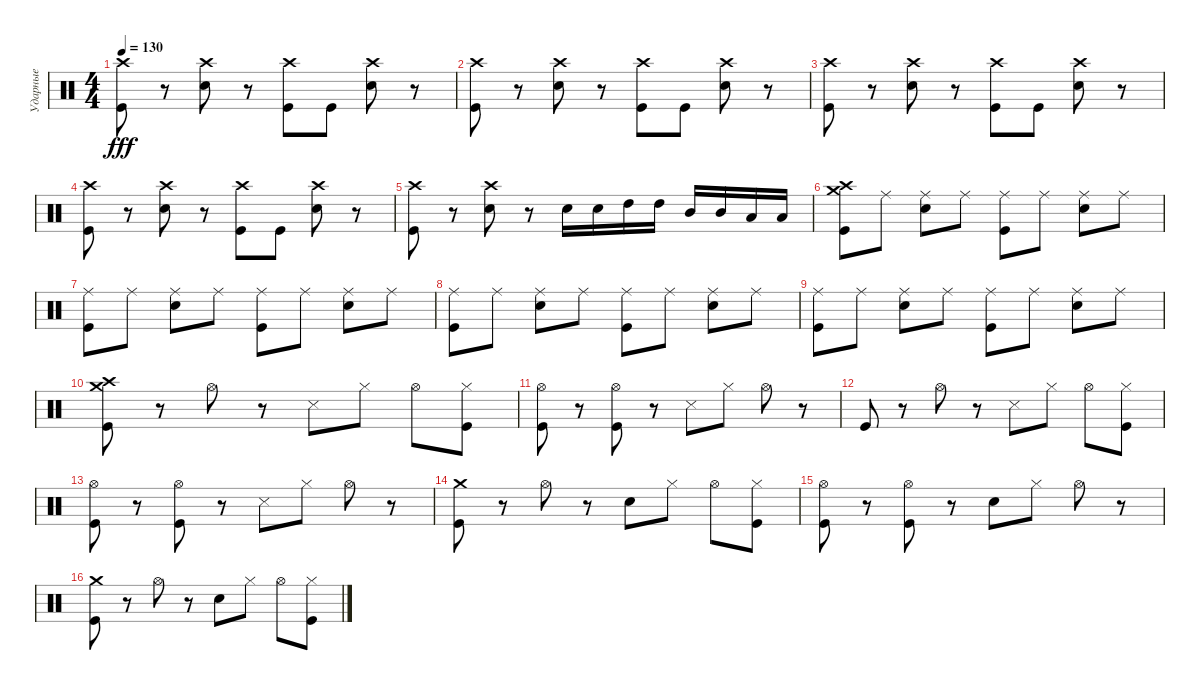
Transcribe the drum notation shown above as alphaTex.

\track ("Ударные" "Ударные") {instrument percussion}
\staff {score}
\articulation defaults
\ts (4 4)
\tempo 130
\clef neutral
\ks c
("Crash high (hit)" "Kick (hit)").8{dy fff} r.8 ("Crash high (hit)" "Electric Snare (hit)").8 r.8 ("Crash high (hit)" "Kick (hit)").8 "Kick (hit)".8 ("Crash high (hit)" "Electric Snare (hit)").8 r.8 |
("Crash high (hit)" "Kick (hit)").8 r.8 ("Crash high (hit)" "Electric Snare (hit)").8 r.8 ("Crash high (hit)" "Kick (hit)").8 "Kick (hit)".8 ("Crash high (hit)" "Electric Snare (hit)").8 r.8 |
("Crash high (hit)" "Kick (hit)").8 r.8 ("Crash high (hit)" "Electric Snare (hit)").8 r.8 ("Crash high (hit)" "Kick (hit)").8 "Kick (hit)".8 ("Crash high (hit)" "Electric Snare (hit)").8 r.8 |
("Crash high (hit)" "Kick (hit)").8 r.8 ("Crash high (hit)" "Electric Snare (hit)").8 r.8 ("Crash high (hit)" "Kick (hit)").8 "Kick (hit)".8 ("Crash high (hit)" "Electric Snare (hit)").8 r.8 |
("Crash high (hit)" "Kick (hit)").8 r.8 ("Crash high (hit)" "Electric Snare (hit)").8 r.8 "Electric Snare (hit)".16 "Electric Snare (hit)".16 "High Tom (hit)".16 "High Tom (hit)".16 "Mid Tom (hit)".16 "Mid Tom (hit)".16 "Low Tom (hit)".16 "Low Tom (hit)".16 |
("Crash medium (hit)" "Crash high (hit)" "Kick (hit)").8 "Ride (middle)".8 ("Ride (middle)" "Electric Snare (hit)").8 "Ride (middle)".8 ("Ride (middle)" "Kick (hit)").8 "Ride (middle)".8 ("Ride (middle)" "Electric Snare (hit)").8 "Ride (middle)".8 |
("Ride (middle)" "Kick (hit)").8 "Ride (middle)".8 ("Ride (middle)" "Electric Snare (hit)").8 "Ride (middle)".8 ("Ride (middle)" "Kick (hit)").8 "Ride (middle)".8 ("Ride (middle)" "Electric Snare (hit)").8 "Ride (middle)".8 |
("Ride (middle)" "Kick (hit)").8 "Ride (middle)".8 ("Ride (middle)" "Electric Snare (hit)").8 "Ride (middle)".8 ("Ride (middle)" "Kick (hit)").8 "Ride (middle)".8 ("Ride (middle)" "Electric Snare (hit)").8 "Ride (middle)".8 |
("Ride (middle)" "Kick (hit)").8 "Ride (middle)".8 ("Ride (middle)" "Electric Snare (hit)").8 "Ride (middle)".8 ("Ride (middle)" "Kick (hit)").8 "Ride (middle)".8 ("Ride (middle)" "Electric Snare (hit)").8 "Ride (middle)".8 |
("Crash medium (hit)" "Kick (hit)" "Crash high (hit)").8 r.8 "Hi-Hat (open)".8 r.8 "Snare (side stick) 3".8 "Hi-Hat (closed)".8 "Hi-Hat (open)".8 ("Kick (hit)" "Hi-Hat (closed)").8 |
("Kick (hit)" "Hi-Hat (open)").8 r.8 ("Kick (hit)" "Hi-Hat (open)").8 r.8 "Snare (side stick) 3".8 "Hi-Hat (closed)".8 "Hi-Hat (open)".8 r.8 |
"Kick (hit)".8 r.8 "Hi-Hat (open)".8 r.8 "Snare (side stick) 3".8 "Hi-Hat (closed)".8 "Hi-Hat (open)".8 ("Kick (hit)" "Hi-Hat (closed)").8 |
("Kick (hit)" "Hi-Hat (open)").8 r.8 ("Kick (hit)" "Hi-Hat (open)").8 r.8 "Snare (side stick) 3".8 "Hi-Hat (closed)".8 "Hi-Hat (open)".8 r.8 |
("Crash medium (hit)" "Kick (hit)").8 r.8 "Hi-Hat (open)".8 r.8 "Electric Snare (hit)".8 "Hi-Hat (closed)".8 "Hi-Hat (open)".8 ("Kick (hit)" "Hi-Hat (closed)").8 |
("Kick (hit)" "Hi-Hat (open)").8 r.8 ("Kick (hit)" "Hi-Hat (open)").8 r.8 "Electric Snare (hit)".8 "Hi-Hat (closed)".8 "Hi-Hat (open)".8 r.8 |
("Crash medium (hit)" "Kick (hit)").8 r.8 "Hi-Hat (open)".8 r.8 "Electric Snare (hit)".8 "Hi-Hat (closed)".8 "Hi-Hat (open)".8 ("Kick (hit)" "Hi-Hat (closed)").8
